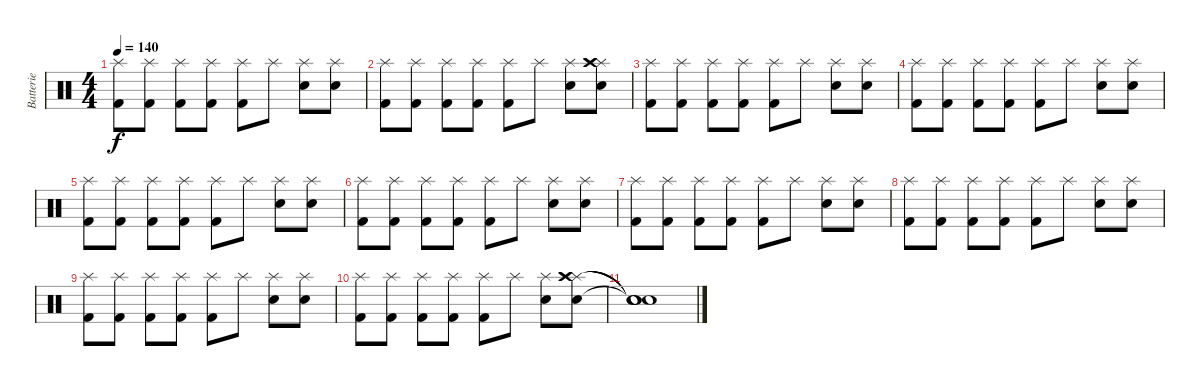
\track ("Batterie" "Batterie") {instrument percussion}
\staff {score}
\articulation defaults
\ts (4 4)
\tempo 140
\clef neutral
\ks c
("Splash (hit)" "Kick (hit) 2").8{dy f} ("Splash (hit)" "Kick (hit) 2").8 ("Splash (hit)" "Kick (hit) 2").8 ("Splash (hit)" "Kick (hit) 2").8 ("Splash (hit)" "Kick (hit) 2").8 "Splash (hit)".8 ("Splash (hit)" "Snare (hit) 2").8 ("Splash (hit)" "Snare (hit) 2").8 |
("Splash (hit)" "Kick (hit) 2").8 ("Splash (hit)" "Kick (hit) 2").8 ("Splash (hit)" "Kick (hit) 2").8 ("Splash (hit)" "Kick (hit) 2").8 ("Splash (hit)" "Kick (hit) 2").8 "Splash (hit)".8 ("Splash (hit)" "Snare (hit) 2").8 ("Splash (hit)" "Snare (hit) 2" "Crash high (hit)" "Crash high (hit)").8 |
("Splash (hit)" "Kick (hit) 2").8 ("Splash (hit)" "Kick (hit) 2").8 ("Splash (hit)" "Kick (hit) 2").8 ("Splash (hit)" "Kick (hit) 2").8 ("Splash (hit)" "Kick (hit) 2").8 "Splash (hit)".8 ("Splash (hit)" "Snare (hit) 2").8 ("Splash (hit)" "Snare (hit) 2").8 |
("Splash (hit)" "Kick (hit) 2").8 ("Splash (hit)" "Kick (hit) 2").8 ("Splash (hit)" "Kick (hit) 2").8 ("Splash (hit)" "Kick (hit) 2").8 ("Splash (hit)" "Kick (hit) 2").8 "Splash (hit)".8 ("Splash (hit)" "Snare (hit) 2").8 ("Splash (hit)" "Snare (hit) 2").8 |
("Splash (hit)" "Kick (hit) 2").8 ("Splash (hit)" "Kick (hit) 2").8 ("Splash (hit)" "Kick (hit) 2").8 ("Splash (hit)" "Kick (hit) 2").8 ("Splash (hit)" "Kick (hit) 2").8 "Splash (hit)".8 ("Splash (hit)" "Snare (hit) 2").8 ("Splash (hit)" "Snare (hit) 2").8 |
("Splash (hit)" "Kick (hit) 2").8 ("Splash (hit)" "Kick (hit) 2").8 ("Splash (hit)" "Kick (hit) 2").8 ("Splash (hit)" "Kick (hit) 2").8 ("Splash (hit)" "Kick (hit) 2").8 "Splash (hit)".8 ("Splash (hit)" "Snare (hit) 2").8 ("Splash (hit)" "Snare (hit) 2").8 |
("Splash (hit)" "Kick (hit) 2").8 ("Splash (hit)" "Kick (hit) 2").8 ("Splash (hit)" "Kick (hit) 2").8 ("Splash (hit)" "Kick (hit) 2").8 ("Splash (hit)" "Kick (hit) 2").8 "Splash (hit)".8 ("Splash (hit)" "Snare (hit) 2").8 ("Splash (hit)" "Snare (hit) 2").8 |
("Splash (hit)" "Kick (hit) 2").8 ("Splash (hit)" "Kick (hit) 2").8 ("Splash (hit)" "Kick (hit) 2").8 ("Splash (hit)" "Kick (hit) 2").8 ("Splash (hit)" "Kick (hit) 2").8 "Splash (hit)".8 ("Splash (hit)" "Snare (hit) 2").8 ("Splash (hit)" "Snare (hit) 2").8 |
("Splash (hit)" "Kick (hit) 2").8 ("Splash (hit)" "Kick (hit) 2").8 ("Splash (hit)" "Kick (hit) 2").8 ("Splash (hit)" "Kick (hit) 2").8 ("Splash (hit)" "Kick (hit) 2").8 "Splash (hit)".8 ("Splash (hit)" "Snare (hit) 2").8 ("Splash (hit)" "Snare (hit) 2").8 |
("Splash (hit)" "Kick (hit) 2").8 ("Splash (hit)" "Kick (hit) 2").8 ("Splash (hit)" "Kick (hit) 2").8 ("Splash (hit)" "Kick (hit) 2").8 ("Splash (hit)" "Kick (hit) 2").8 "Splash (hit)".8 ("Splash (hit)" "Snare (hit) 2").8 ("Splash (hit)" "Snare (hit) 2" "Crash high (hit)" "Crash high (hit)").8 |
("Snare (hit)"{t} "Snare (hit)"{t} "Snare (hit)"{t} "Snare (hit)"{t}).1
